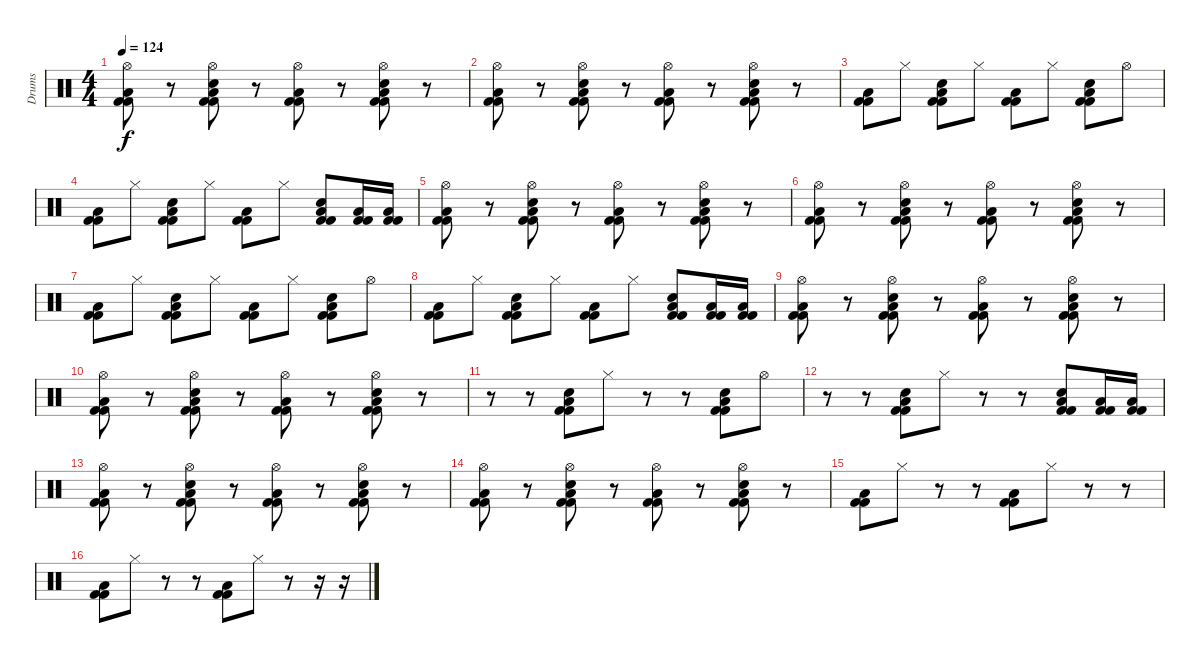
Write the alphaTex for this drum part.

\track ("Drums" "Drums") {instrument percussion}
\staff {score}
\articulation defaults
\ts (4 4)
\tempo 124
\clef neutral
\ks c
("Hi-Hat (open)" "Kick (hit) 2" "Low Floor Tom (hit)" "Kick (hit) 2").8{dy f} r.8 ("Hi-Hat (open)" "Electric Snare (hit)" "Kick (hit) 2" "Low Floor Tom (hit)" "Kick (hit) 2").8 r.8 ("Hi-Hat (open)" "Kick (hit) 2" "Low Floor Tom (hit)" "Kick (hit) 2").8 r.8 ("Hi-Hat (open)" "Electric Snare (hit)" "Kick (hit) 2" "Low Floor Tom (hit)" "Kick (hit) 2").8 r.8 |
("Hi-Hat (open)" "Kick (hit) 2" "Low Floor Tom (hit)" "Kick (hit) 2").8 r.8 ("Hi-Hat (open)" "Electric Snare (hit)" "Kick (hit) 2" "Low Floor Tom (hit)" "Kick (hit) 2").8 r.8 ("Hi-Hat (open)" "Kick (hit) 2" "Low Floor Tom (hit)" "Kick (hit) 2").8 r.8 ("Hi-Hat (open)" "Electric Snare (hit)" "Kick (hit) 2" "Low Floor Tom (hit)" "Kick (hit) 2").8 r.8 |
("Kick (hit) 2" "Low Floor Tom (hit)" "Kick (hit) 2").8 "Hi-Hat (closed)".8 ("Electric Snare (hit)" "Kick (hit) 2" "Low Floor Tom (hit)" "Kick (hit) 2").8 "Hi-Hat (closed)".8 ("Kick (hit) 2" "Low Floor Tom (hit)" "Kick (hit) 2").8 "Hi-Hat (closed)".8 ("Electric Snare (hit)" "Kick (hit) 2" "Low Floor Tom (hit)" "Kick (hit) 2").8 "Hi-Hat (open)".8 |
("Kick (hit) 2" "Low Floor Tom (hit)" "Kick (hit) 2").8 "Hi-Hat (closed)".8 ("Electric Snare (hit)" "Kick (hit) 2" "Low Floor Tom (hit)" "Kick (hit) 2").8 "Hi-Hat (closed)".8 ("Kick (hit) 2" "Low Floor Tom (hit)" "Kick (hit) 2").8 "Hi-Hat (closed)".8 ("Electric Snare (hit)" "Kick (hit) 2" "Low Floor Tom (hit)" "Kick (hit) 2").8 ("Kick (hit) 2" "Low Floor Tom (hit)" "Kick (hit) 2").16 ("Kick (hit) 2" "Low Floor Tom (hit)" "Kick (hit) 2").16 |
("Hi-Hat (open)" "Kick (hit) 2" "Low Floor Tom (hit)" "Kick (hit) 2").8 r.8 ("Hi-Hat (open)" "Electric Snare (hit)" "Kick (hit) 2" "Low Floor Tom (hit)" "Kick (hit) 2").8 r.8 ("Hi-Hat (open)" "Kick (hit) 2" "Low Floor Tom (hit)" "Kick (hit) 2").8 r.8 ("Hi-Hat (open)" "Electric Snare (hit)" "Kick (hit) 2" "Low Floor Tom (hit)" "Kick (hit) 2").8 r.8 |
("Hi-Hat (open)" "Kick (hit) 2" "Low Floor Tom (hit)" "Kick (hit) 2").8 r.8 ("Hi-Hat (open)" "Electric Snare (hit)" "Kick (hit) 2" "Low Floor Tom (hit)" "Kick (hit) 2").8 r.8 ("Hi-Hat (open)" "Kick (hit) 2" "Low Floor Tom (hit)" "Kick (hit) 2").8 r.8 ("Hi-Hat (open)" "Electric Snare (hit)" "Kick (hit) 2" "Low Floor Tom (hit)" "Kick (hit) 2").8 r.8 |
("Kick (hit) 2" "Low Floor Tom (hit)" "Kick (hit) 2").8 "Hi-Hat (closed)".8 ("Electric Snare (hit)" "Kick (hit) 2" "Low Floor Tom (hit)" "Kick (hit) 2").8 "Hi-Hat (closed)".8 ("Kick (hit) 2" "Low Floor Tom (hit)" "Kick (hit) 2").8 "Hi-Hat (closed)".8 ("Electric Snare (hit)" "Kick (hit) 2" "Low Floor Tom (hit)" "Kick (hit) 2").8 "Hi-Hat (open)".8 |
("Kick (hit) 2" "Low Floor Tom (hit)" "Kick (hit) 2").8 "Hi-Hat (closed)".8 ("Electric Snare (hit)" "Kick (hit) 2" "Low Floor Tom (hit)" "Kick (hit) 2").8 "Hi-Hat (closed)".8 ("Kick (hit) 2" "Low Floor Tom (hit)" "Kick (hit) 2").8 "Hi-Hat (closed)".8 ("Electric Snare (hit)" "Kick (hit) 2" "Low Floor Tom (hit)" "Kick (hit) 2").8 ("Kick (hit) 2" "Low Floor Tom (hit)" "Kick (hit) 2").16 ("Kick (hit) 2" "Low Floor Tom (hit)" "Kick (hit) 2").16 |
("Hi-Hat (open)" "Kick (hit) 2" "Low Floor Tom (hit)" "Kick (hit) 2").8 r.8 ("Hi-Hat (open)" "Electric Snare (hit)" "Kick (hit) 2" "Low Floor Tom (hit)" "Kick (hit) 2").8 r.8 ("Hi-Hat (open)" "Kick (hit) 2" "Low Floor Tom (hit)" "Kick (hit) 2").8 r.8 ("Hi-Hat (open)" "Electric Snare (hit)" "Kick (hit) 2" "Low Floor Tom (hit)" "Kick (hit) 2").8 r.8 |
("Hi-Hat (open)" "Kick (hit) 2" "Low Floor Tom (hit)" "Kick (hit) 2").8 r.8 ("Hi-Hat (open)" "Electric Snare (hit)" "Kick (hit) 2" "Low Floor Tom (hit)" "Kick (hit) 2").8 r.8 ("Hi-Hat (open)" "Kick (hit) 2" "Low Floor Tom (hit)" "Kick (hit) 2").8 r.8 ("Hi-Hat (open)" "Electric Snare (hit)" "Kick (hit) 2" "Low Floor Tom (hit)" "Kick (hit) 2").8 r.8 |
r.8 r.8 ("Electric Snare (hit)" "Kick (hit) 2" "Low Floor Tom (hit)" "Kick (hit) 2").8 "Hi-Hat (closed)".8 r.8 r.8 ("Electric Snare (hit)" "Kick (hit) 2" "Low Floor Tom (hit)" "Kick (hit) 2").8 "Hi-Hat (open)".8 |
r.8 r.8 ("Electric Snare (hit)" "Kick (hit) 2" "Low Floor Tom (hit)" "Kick (hit) 2").8 "Hi-Hat (closed)".8 r.8 r.8 ("Electric Snare (hit)" "Kick (hit) 2" "Low Floor Tom (hit)" "Kick (hit) 2").8 ("Kick (hit) 2" "Low Floor Tom (hit)" "Kick (hit) 2").16 ("Kick (hit) 2" "Low Floor Tom (hit)" "Kick (hit) 2").16 |
("Hi-Hat (open)" "Kick (hit) 2" "Low Floor Tom (hit)" "Kick (hit) 2").8 r.8 ("Hi-Hat (open)" "Electric Snare (hit)" "Kick (hit) 2" "Low Floor Tom (hit)" "Kick (hit) 2").8 r.8 ("Hi-Hat (open)" "Kick (hit) 2" "Low Floor Tom (hit)" "Kick (hit) 2").8 r.8 ("Hi-Hat (open)" "Electric Snare (hit)" "Kick (hit) 2" "Low Floor Tom (hit)" "Kick (hit) 2").8 r.8 |
("Hi-Hat (open)" "Kick (hit) 2" "Low Floor Tom (hit)" "Kick (hit) 2").8 r.8 ("Hi-Hat (open)" "Electric Snare (hit)" "Kick (hit) 2" "Low Floor Tom (hit)" "Kick (hit) 2").8 r.8 ("Hi-Hat (open)" "Kick (hit) 2" "Low Floor Tom (hit)" "Kick (hit) 2").8 r.8 ("Hi-Hat (open)" "Electric Snare (hit)" "Kick (hit) 2" "Low Floor Tom (hit)" "Kick (hit) 2").8 r.8 |
("Kick (hit) 2" "Low Floor Tom (hit)" "Kick (hit) 2").8 "Hi-Hat (closed)".8 r.8 r.8 ("Kick (hit) 2" "Low Floor Tom (hit)" "Kick (hit) 2").8 "Hi-Hat (closed)".8 r.8 r.8 |
("Kick (hit) 2" "Low Floor Tom (hit)" "Kick (hit) 2").8 "Hi-Hat (closed)".8 r.8 r.8 ("Kick (hit) 2" "Low Floor Tom (hit)" "Kick (hit) 2").8 "Hi-Hat (closed)".8 r.8 r.16 r.16
